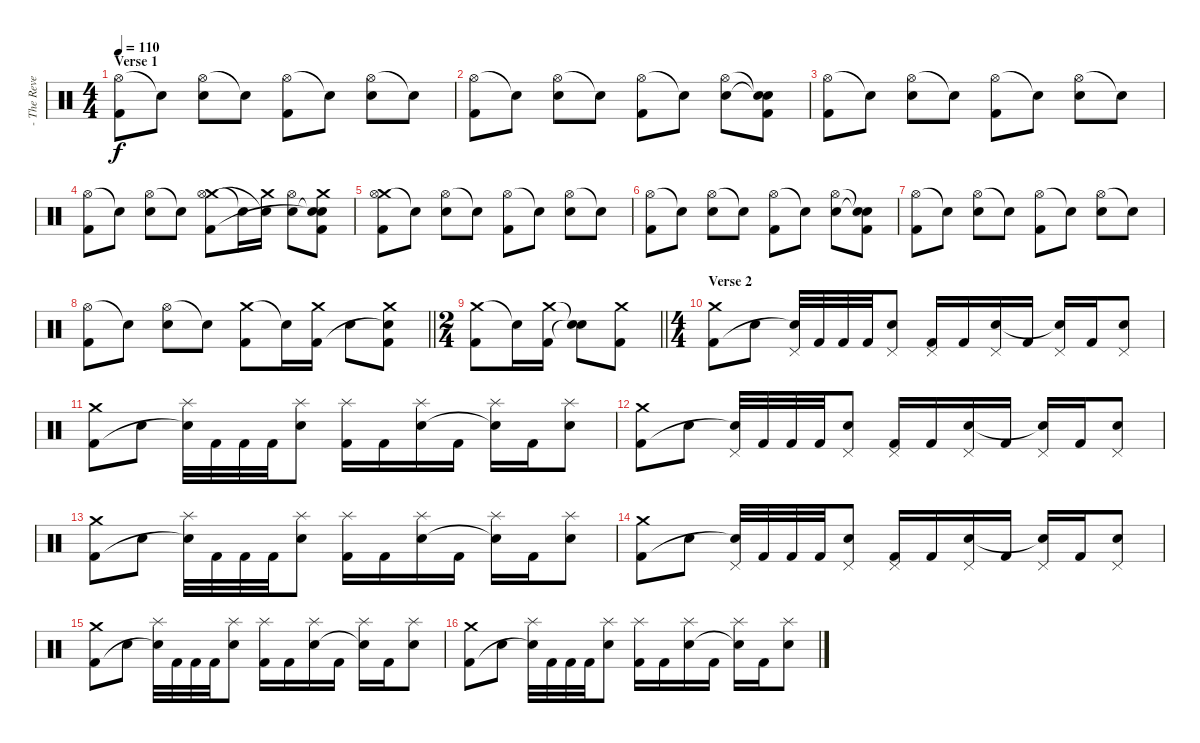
\track ("- The Reverend - Drums" "- The Reve") {instrument percussion}
\staff {score}
\articulation defaults
\ts (4 4)
\section ("" "Verse 1")
\tempo 110
\clef neutral
\ks c
("Hi-Hat (open)" "Kick (hit) 2").8{dy f} "Snare (hit)"{t}.8 ("Hi-Hat (open)" "Snare (hit) 2").8 "Snare (hit)"{t}.8 ("Hi-Hat (open)" "Kick (hit) 2").8 "Snare (hit)"{t}.8 ("Hi-Hat (open)" "Snare (hit) 2").8 "Snare (hit)"{t}.8 |
("Hi-Hat (open)" "Kick (hit) 2").8 "Snare (hit)"{t}.8 ("Hi-Hat (open)" "Snare (hit) 2").8 "Snare (hit)"{t}.8 ("Hi-Hat (open)" "Kick (hit) 2").8 "Snare (hit)"{t}.8 ("Hi-Hat (open)" "Snare (hit) 2").8 ("Snare (hit)"{t} "Snare (hit)"{t} "Kick (hit) 2").8 |
("Hi-Hat (open)" "Kick (hit) 2").8 "Snare (hit)"{t}.8 ("Hi-Hat (open)" "Snare (hit) 2").8 "Snare (hit)"{t}.8 ("Hi-Hat (open)" "Kick (hit) 2").8 "Snare (hit)"{t}.8 ("Hi-Hat (open)" "Snare (hit) 2").8 "Snare (hit)"{t}.8 |
("Hi-Hat (open)" "Kick (hit) 2").8 "Snare (hit)"{t}.8 ("Hi-Hat (open)" "Snare (hit) 2").8 "Snare (hit)"{t}.8 ("Crash medium (hit)" "Hi-Hat (open)" "Kick (hit) 2").8 "Snare (hit)"{t}.16 ("Crash medium (hit)" "Snare (hit)"{t}).16 ("Hi-Hat (open)" "Snare (hit) 2").8 ("Crash medium (hit)" "Snare (hit)"{t} "Snare (hit)"{t} "Kick (hit) 2").8 |
("Crash medium (hit)" "Hi-Hat (open)" "Kick (hit) 2").8 "Snare (hit)"{t}.8 ("Hi-Hat (open)" "Snare (hit) 2").8 "Snare (hit)"{t}.8 ("Hi-Hat (open)" "Kick (hit) 2").8 "Snare (hit)"{t}.8 ("Hi-Hat (open)" "Snare (hit) 2").8 "Snare (hit)"{t}.8 |
("Hi-Hat (open)" "Kick (hit) 2").8 "Snare (hit)"{t}.8 ("Hi-Hat (open)" "Snare (hit) 2").8 "Snare (hit)"{t}.8 ("Hi-Hat (open)" "Kick (hit) 2").8 "Snare (hit)"{t}.8 ("Hi-Hat (open)" "Snare (hit) 2").8 ("Snare (hit)"{t} "Snare (hit)"{t} "Kick (hit) 2").8 |
("Hi-Hat (open)" "Kick (hit) 2").8 "Snare (hit)"{t}.8 ("Hi-Hat (open)" "Snare (hit) 2").8 "Snare (hit)"{t}.8 ("Hi-Hat (open)" "Kick (hit) 2").8 "Snare (hit)"{t}.8 ("Hi-Hat (open)" "Snare (hit) 2").8 "Snare (hit)"{t}.8 |
\barLineRight lightlight
("Hi-Hat (open)" "Kick (hit) 2").8 "Snare (hit)"{t}.8 ("Hi-Hat (open)" "Snare (hit) 2").8 "Snare (hit)"{t}.8 ("Crash medium (hit)" "Kick (hit) 2").8 "Snare (hit)"{t}.16 ("Crash medium (hit)" "Kick (hit) 2").16 "Snare (hit) 2".8 ("Crash medium (hit)" "Snare (hit)"{t} "Kick (hit) 2").8 |
\ts (2 4)
\barLineRight lightlight
("Crash medium (hit)" "Kick (hit) 2").8 "Snare (hit)"{t}.16 ("Crash medium (hit)" "Kick (hit) 2").16 ("Snare (hit)"{t} "Snare (hit)"{t}).8 ("Crash medium (hit)" "Kick (hit) 2").8 |
\ts (4 4)
\section ("" "Verse 2")
("Crash medium (hit)" "Kick (hit) 2").8 "Snare (hit) 2".8 ("Pedal Hi-Hat (hit)" "Snare (hit)"{t}).32 "Kick (hit) 2".32 "Kick (hit) 2".32 "Kick (hit) 2".32 ("Pedal Hi-Hat (hit)" "Snare (hit) 2").8 ("Pedal Hi-Hat (hit)" "Kick (hit) 2").16 "Kick (hit) 2".16 ("Pedal Hi-Hat (hit)" "Snare (hit) 2").16 "Kick (hit) 2".16 ("Pedal Hi-Hat (hit)" "Snare (hit)"{t}).16 "Kick (hit) 2".16 ("Pedal Hi-Hat (hit)" "Snare (hit) 2").8 |
("Crash medium (hit)" "Kick (hit) 2").8 "Snare (hit) 2".8 ("Splash (hit)" "Snare (hit)"{t}).32 "Kick (hit) 2".32 "Kick (hit) 2".32 "Kick (hit) 2".32 ("Splash (hit)" "Snare (hit) 2").8 ("Splash (hit)" "Kick (hit) 2").16 "Kick (hit) 2".16 ("Splash (hit)" "Snare (hit) 2").16 "Kick (hit) 2".16 ("Splash (hit)" "Snare (hit)"{t}).16 "Kick (hit) 2".16 ("Splash (hit)" "Snare (hit) 2").8 |
("Crash medium (hit)" "Kick (hit) 2").8 "Snare (hit) 2".8 ("Pedal Hi-Hat (hit)" "Snare (hit)"{t}).32 "Kick (hit) 2".32 "Kick (hit) 2".32 "Kick (hit) 2".32 ("Pedal Hi-Hat (hit)" "Snare (hit) 2").8 ("Pedal Hi-Hat (hit)" "Kick (hit) 2").16 "Kick (hit) 2".16 ("Pedal Hi-Hat (hit)" "Snare (hit) 2").16 "Kick (hit) 2".16 ("Pedal Hi-Hat (hit)" "Snare (hit)"{t}).16 "Kick (hit) 2".16 ("Pedal Hi-Hat (hit)" "Snare (hit) 2").8 |
("Crash medium (hit)" "Kick (hit) 2").8 "Snare (hit) 2".8 ("Splash (hit)" "Snare (hit)"{t}).32 "Kick (hit) 2".32 "Kick (hit) 2".32 "Kick (hit) 2".32 ("Splash (hit)" "Snare (hit) 2").8 ("Splash (hit)" "Kick (hit) 2").16 "Kick (hit) 2".16 ("Splash (hit)" "Snare (hit) 2").16 "Kick (hit) 2".16 ("Splash (hit)" "Snare (hit)"{t}).16 "Kick (hit) 2".16 ("Splash (hit)" "Snare (hit) 2").8 |
("Crash medium (hit)" "Kick (hit) 2").8 "Snare (hit) 2".8 ("Pedal Hi-Hat (hit)" "Snare (hit)"{t}).32 "Kick (hit) 2".32 "Kick (hit) 2".32 "Kick (hit) 2".32 ("Pedal Hi-Hat (hit)" "Snare (hit) 2").8 ("Pedal Hi-Hat (hit)" "Kick (hit) 2").16 "Kick (hit) 2".16 ("Pedal Hi-Hat (hit)" "Snare (hit) 2").16 "Kick (hit) 2".16 ("Pedal Hi-Hat (hit)" "Snare (hit)"{t}).16 "Kick (hit) 2".16 ("Pedal Hi-Hat (hit)" "Snare (hit) 2").8 |
("Crash medium (hit)" "Kick (hit) 2").8 "Snare (hit) 2".8 ("Splash (hit)" "Snare (hit)"{t}).32 "Kick (hit) 2".32 "Kick (hit) 2".32 "Kick (hit) 2".32 ("Splash (hit)" "Snare (hit) 2").8 ("Splash (hit)" "Kick (hit) 2").16 "Kick (hit) 2".16 ("Splash (hit)" "Snare (hit) 2").16 "Kick (hit) 2".16 ("Splash (hit)" "Snare (hit)"{t}).16 "Kick (hit) 2".16 ("Splash (hit)" "Snare (hit) 2").8 |
("Crash medium (hit)" "Kick (hit) 2").8 "Snare (hit) 2".8 ("Splash (hit)" "Snare (hit)"{t}).32 "Kick (hit) 2".32 "Kick (hit) 2".32 "Kick (hit) 2".32 ("Splash (hit)" "Snare (hit) 2").8 ("Splash (hit)" "Kick (hit) 2").16 "Kick (hit) 2".16 ("Splash (hit)" "Snare (hit) 2").16 "Kick (hit) 2".16 ("Splash (hit)" "Snare (hit)"{t}).16 "Kick (hit) 2".16 ("Splash (hit)" "Snare (hit) 2").8
